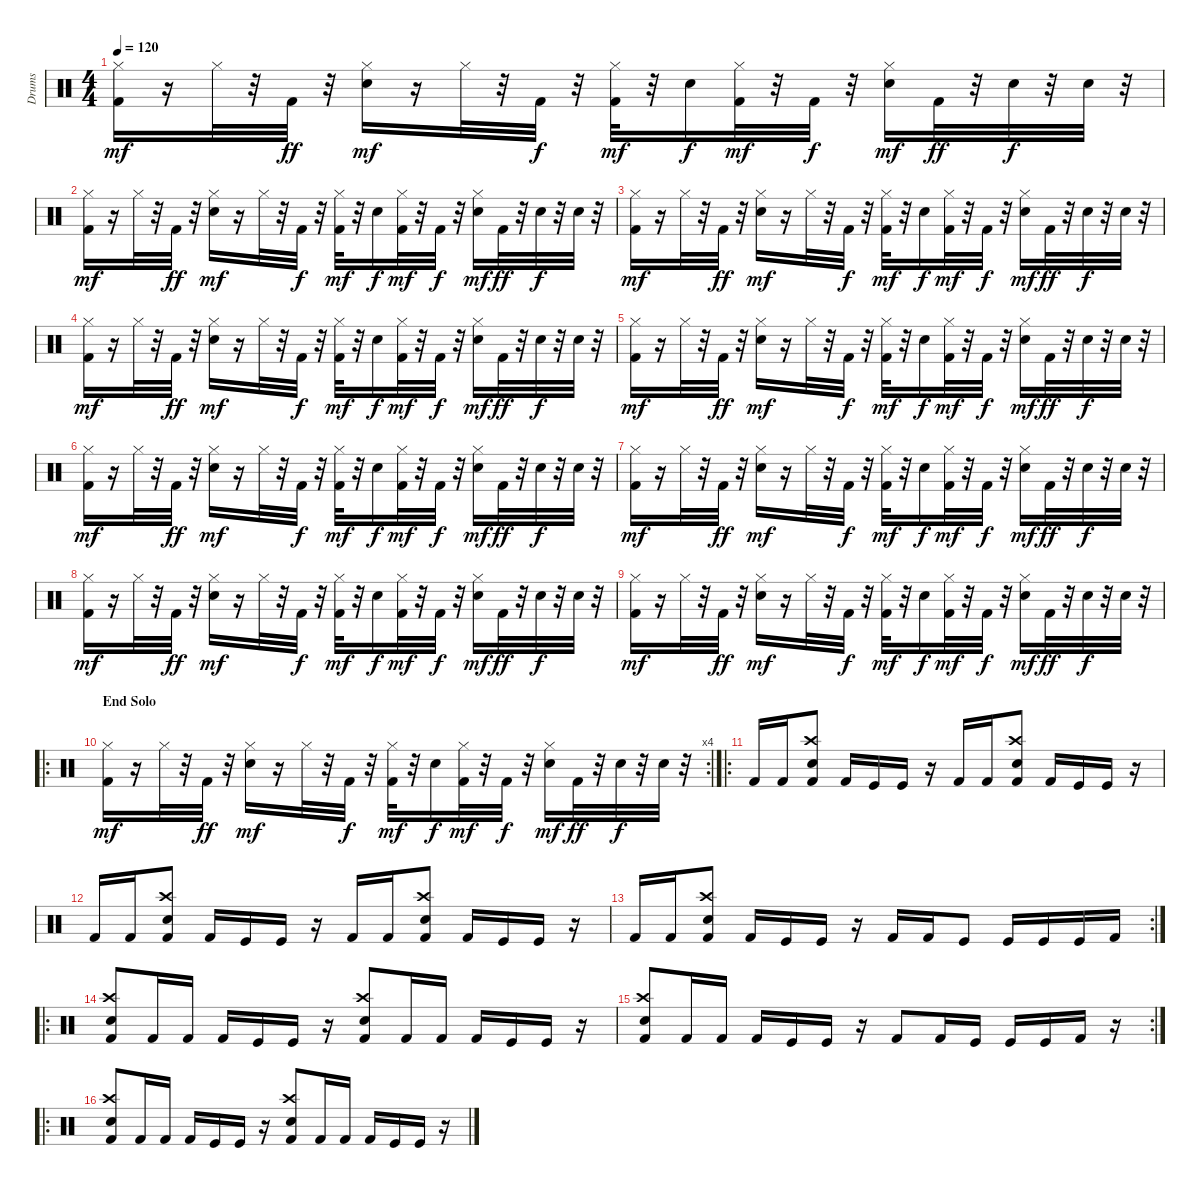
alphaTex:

\track ("Drums" "Drums") {instrument percussion}
\staff {score}
\articulation defaults
\ts (4 4)
\tempo 120
\clef neutral
\ks c
("Kick (hit) 2" "Hi-Hat (closed)").16{dy mf} r.16 "Hi-Hat (closed)".32 r.32 "Kick (hit) 2".32{dy ff} r.32 ("Electric Snare (hit)" "Hi-Hat (closed)").16{dy mf} r.16 "Hi-Hat (closed)".32 r.32 "Kick (hit) 2".32{dy f} r.32 ("Kick (hit) 2" "Hi-Hat (closed)").32{dy mf} r.32 "Electric Snare (hit)".16{dy f} ("Kick (hit) 2" "Hi-Hat (closed)").32{dy mf} r.32 "Kick (hit) 2".32{dy f} r.32 ("Electric Snare (hit)" "Hi-Hat (closed)").16{dy mf} "Kick (hit) 2".32{dy ff} r.32 "Electric Snare (hit)".32{dy f} r.32 "Electric Snare (hit)".32 r.32 |
("Kick (hit) 2" "Hi-Hat (closed)").16{dy mf} r.16 "Hi-Hat (closed)".32 r.32 "Kick (hit) 2".32{dy ff} r.32 ("Electric Snare (hit)" "Hi-Hat (closed)").16{dy mf} r.16 "Hi-Hat (closed)".32 r.32 "Kick (hit) 2".32{dy f} r.32 ("Kick (hit) 2" "Hi-Hat (closed)").32{dy mf} r.32 "Electric Snare (hit)".16{dy f} ("Kick (hit) 2" "Hi-Hat (closed)").32{dy mf} r.32 "Kick (hit) 2".32{dy f} r.32 ("Electric Snare (hit)" "Hi-Hat (closed)").16{dy mf} "Kick (hit) 2".32{dy ff} r.32 "Electric Snare (hit)".32{dy f} r.32 "Electric Snare (hit)".32 r.32 |
("Kick (hit) 2" "Hi-Hat (closed)").16{dy mf} r.16 "Hi-Hat (closed)".32 r.32 "Kick (hit) 2".32{dy ff} r.32 ("Electric Snare (hit)" "Hi-Hat (closed)").16{dy mf} r.16 "Hi-Hat (closed)".32 r.32 "Kick (hit) 2".32{dy f} r.32 ("Kick (hit) 2" "Hi-Hat (closed)").32{dy mf} r.32 "Electric Snare (hit)".16{dy f} ("Kick (hit) 2" "Hi-Hat (closed)").32{dy mf} r.32 "Kick (hit) 2".32{dy f} r.32 ("Electric Snare (hit)" "Hi-Hat (closed)").16{dy mf} "Kick (hit) 2".32{dy ff} r.32 "Electric Snare (hit)".32{dy f} r.32 "Electric Snare (hit)".32 r.32 |
("Kick (hit) 2" "Hi-Hat (closed)").16{dy mf} r.16 "Hi-Hat (closed)".32 r.32 "Kick (hit) 2".32{dy ff} r.32 ("Electric Snare (hit)" "Hi-Hat (closed)").16{dy mf} r.16 "Hi-Hat (closed)".32 r.32 "Kick (hit) 2".32{dy f} r.32 ("Kick (hit) 2" "Hi-Hat (closed)").32{dy mf} r.32 "Electric Snare (hit)".16{dy f} ("Kick (hit) 2" "Hi-Hat (closed)").32{dy mf} r.32 "Kick (hit) 2".32{dy f} r.32 ("Electric Snare (hit)" "Hi-Hat (closed)").16{dy mf} "Kick (hit) 2".32{dy ff} r.32 "Electric Snare (hit)".32{dy f} r.32 "Electric Snare (hit)".32 r.32 |
("Kick (hit) 2" "Hi-Hat (closed)").16{dy mf} r.16 "Hi-Hat (closed)".32 r.32 "Kick (hit) 2".32{dy ff} r.32 ("Electric Snare (hit)" "Hi-Hat (closed)").16{dy mf} r.16 "Hi-Hat (closed)".32 r.32 "Kick (hit) 2".32{dy f} r.32 ("Kick (hit) 2" "Hi-Hat (closed)").32{dy mf} r.32 "Electric Snare (hit)".16{dy f} ("Kick (hit) 2" "Hi-Hat (closed)").32{dy mf} r.32 "Kick (hit) 2".32{dy f} r.32 ("Electric Snare (hit)" "Hi-Hat (closed)").16{dy mf} "Kick (hit) 2".32{dy ff} r.32 "Electric Snare (hit)".32{dy f} r.32 "Electric Snare (hit)".32 r.32 |
("Kick (hit) 2" "Hi-Hat (closed)").16{dy mf} r.16 "Hi-Hat (closed)".32 r.32 "Kick (hit) 2".32{dy ff} r.32 ("Electric Snare (hit)" "Hi-Hat (closed)").16{dy mf} r.16 "Hi-Hat (closed)".32 r.32 "Kick (hit) 2".32{dy f} r.32 ("Kick (hit) 2" "Hi-Hat (closed)").32{dy mf} r.32 "Electric Snare (hit)".16{dy f} ("Kick (hit) 2" "Hi-Hat (closed)").32{dy mf} r.32 "Kick (hit) 2".32{dy f} r.32 ("Electric Snare (hit)" "Hi-Hat (closed)").16{dy mf} "Kick (hit) 2".32{dy ff} r.32 "Electric Snare (hit)".32{dy f} r.32 "Electric Snare (hit)".32 r.32 |
("Kick (hit) 2" "Hi-Hat (closed)").16{dy mf} r.16 "Hi-Hat (closed)".32 r.32 "Kick (hit) 2".32{dy ff} r.32 ("Electric Snare (hit)" "Hi-Hat (closed)").16{dy mf} r.16 "Hi-Hat (closed)".32 r.32 "Kick (hit) 2".32{dy f} r.32 ("Kick (hit) 2" "Hi-Hat (closed)").32{dy mf} r.32 "Electric Snare (hit)".16{dy f} ("Kick (hit) 2" "Hi-Hat (closed)").32{dy mf} r.32 "Kick (hit) 2".32{dy f} r.32 ("Electric Snare (hit)" "Hi-Hat (closed)").16{dy mf} "Kick (hit) 2".32{dy ff} r.32 "Electric Snare (hit)".32{dy f} r.32 "Electric Snare (hit)".32 r.32 |
("Kick (hit) 2" "Hi-Hat (closed)").16{dy mf} r.16 "Hi-Hat (closed)".32 r.32 "Kick (hit) 2".32{dy ff} r.32 ("Electric Snare (hit)" "Hi-Hat (closed)").16{dy mf} r.16 "Hi-Hat (closed)".32 r.32 "Kick (hit) 2".32{dy f} r.32 ("Kick (hit) 2" "Hi-Hat (closed)").32{dy mf} r.32 "Electric Snare (hit)".16{dy f} ("Kick (hit) 2" "Hi-Hat (closed)").32{dy mf} r.32 "Kick (hit) 2".32{dy f} r.32 ("Electric Snare (hit)" "Hi-Hat (closed)").16{dy mf} "Kick (hit) 2".32{dy ff} r.32 "Electric Snare (hit)".32{dy f} r.32 "Electric Snare (hit)".32 r.32 |
("Kick (hit) 2" "Hi-Hat (closed)").16{dy mf} r.16 "Hi-Hat (closed)".32 r.32 "Kick (hit) 2".32{dy ff} r.32 ("Electric Snare (hit)" "Hi-Hat (closed)").16{dy mf} r.16 "Hi-Hat (closed)".32 r.32 "Kick (hit) 2".32{dy f} r.32 ("Kick (hit) 2" "Hi-Hat (closed)").32{dy mf} r.32 "Electric Snare (hit)".16{dy f} ("Kick (hit) 2" "Hi-Hat (closed)").32{dy mf} r.32 "Kick (hit) 2".32{dy f} r.32 ("Electric Snare (hit)" "Hi-Hat (closed)").16{dy mf} "Kick (hit) 2".32{dy ff} r.32 "Electric Snare (hit)".32{dy f} r.32 "Electric Snare (hit)".32 r.32 |
\ro
\rc 4
\section ("" "End Solo")
("Kick (hit) 2" "Hi-Hat (closed)").16{dy mf} r.16 "Hi-Hat (closed)".32 r.32 "Kick (hit) 2".32{dy ff} r.32 ("Electric Snare (hit)" "Hi-Hat (closed)").16{dy mf} r.16 "Hi-Hat (closed)".32 r.32 "Kick (hit) 2".32{dy f} r.32 ("Kick (hit) 2" "Hi-Hat (closed)").32{dy mf} r.32 "Electric Snare (hit)".16{dy f} ("Kick (hit) 2" "Hi-Hat (closed)").32{dy mf} r.32 "Kick (hit) 2".32{dy f} r.32 ("Electric Snare (hit)" "Hi-Hat (closed)").16{dy mf} "Kick (hit) 2".32{dy ff} r.32 "Electric Snare (hit)".32{dy f} r.32 "Electric Snare (hit)".32 r.32 |
\ro "Kick (hit) 2".16 "Kick (hit) 2".16
("Crash high (hit)" "Snare (hit) 2" "Kick (hit) 2").8 "Kick (hit) 2".16 "Kick (hit)".16 "Kick (hit)".16 r.16 "Kick (hit) 2".16 "Kick (hit) 2".16 ("Crash high (hit)" "Snare (hit) 2" "Kick (hit) 2").8 "Kick (hit) 2".16 "Kick (hit)".16 "Kick (hit)".16 r.16 |
"Kick (hit) 2".16 "Kick (hit) 2".16 ("Crash high (hit)" "Snare (hit) 2" "Kick (hit) 2").8 "Kick (hit) 2".16 "Kick (hit)".16 "Kick (hit)".16 r.16 "Kick (hit) 2".16 "Kick (hit) 2".16 ("Crash high (hit)" "Snare (hit) 2" "Kick (hit) 2").8 "Kick (hit) 2".16 "Kick (hit)".16 "Kick (hit)".16 r.16 |
\rc 2 "Kick (hit) 2".16 "Kick (hit) 2".16
("Crash high (hit)" "Snare (hit) 2" "Kick (hit) 2").8 "Kick (hit) 2".16 "Kick (hit)".16 "Kick (hit)".16 r.16 "Kick (hit) 2".16 "Kick (hit) 2".16 "Kick (hit)".8 "Kick (hit)".16 "Kick (hit)".16 "Kick (hit)".16 "Kick (hit) 2".16 |
\ro
("Crash high (hit)" "Snare (hit) 2" "Kick (hit) 2").8 "Kick (hit) 2".16 "Kick (hit) 2".16 "Kick (hit) 2".16 "Kick (hit)".16 "Kick (hit)".16 r.16 ("Crash high (hit)" "Snare (hit) 2" "Kick (hit) 2").8 "Kick (hit) 2".16 "Kick (hit) 2".16 "Kick (hit) 2".16 "Kick (hit)".16 "Kick (hit)".16 r.16 |
\rc 2
("Crash high (hit)" "Snare (hit) 2" "Kick (hit) 2").8 "Kick (hit) 2".16 "Kick (hit) 2".16 "Kick (hit) 2".16 "Kick (hit)".16 "Kick (hit)".16 r.16 "Kick (hit) 2".8 "Kick (hit) 2".16 "Kick (hit)".16 "Kick (hit)".16 "Kick (hit)".16 "Kick (hit) 2".16 r.16 |
\ro
("Crash high (hit)" "Snare (hit) 2" "Kick (hit) 2").8 "Kick (hit) 2".16 "Kick (hit) 2".16 "Kick (hit) 2".16 "Kick (hit)".16 "Kick (hit)".16 r.16 ("Crash high (hit)" "Snare (hit) 2" "Kick (hit) 2").8 "Kick (hit) 2".16 "Kick (hit) 2".16 "Kick (hit) 2".16 "Kick (hit)".16 "Kick (hit)".16 r.16
